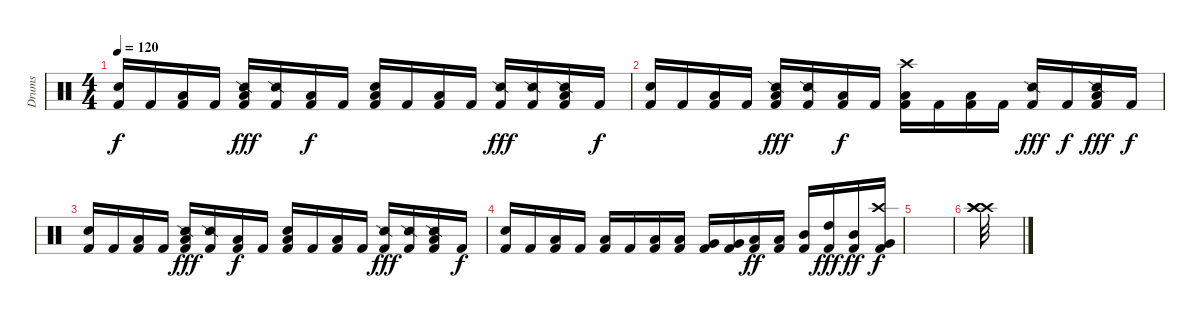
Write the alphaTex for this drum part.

\track ("Drums" "Drums") {instrument percussion}
\staff {score}
\articulation defaults
\ts (4 4)
\tempo 120
\clef neutral
\ks c
("Snare (hit) 2" "Kick (hit) 2").16{dy f} "Kick (hit) 2".16 ("Low Floor Tom (hit)" "Kick (hit) 2").16 "Kick (hit) 2".16 ("Snare (side stick) 2" "Low Floor Tom (hit)" "Kick (hit) 2").16{dy fff} ("Snare (side stick) 2" "Kick (hit) 2").16 ("Low Floor Tom (hit)" "Kick (hit) 2").16{dy f} "Kick (hit) 2".16 ("Snare (hit) 2" "Low Floor Tom (hit)" "Kick (hit) 2").16 "Kick (hit) 2".16 ("Low Floor Tom (hit)" "Kick (hit) 2").16 "Kick (hit) 2".16 ("Snare (side stick) 2" "Kick (hit) 2").16{dy fff} ("Snare (side stick) 2" "Kick (hit) 2").16 ("Snare (side stick) 2" "Low Floor Tom (hit)" "Kick (hit) 2").16 "Kick (hit) 2".16{dy f} |
("Snare (hit) 2" "Kick (hit) 2").16 "Kick (hit) 2".16 ("Low Floor Tom (hit)" "Kick (hit) 2").16 "Kick (hit) 2".16 ("Snare (side stick) 2" "Low Floor Tom (hit)" "Kick (hit) 2").16{dy fff} ("Snare (side stick) 2" "Kick (hit) 2").16 ("Low Floor Tom (hit)" "Kick (hit) 2").16{dy f} "Kick (hit) 2".16 ("Crash high (hit)" "Low Floor Tom (hit)" "Kick (hit) 2").16 "Kick (hit) 2".16 ("Low Floor Tom (hit)" "Kick (hit) 2").16 "Kick (hit) 2".16 ("Snare (side stick) 2" "Kick (hit) 2").16{dy fff} "Kick (hit) 2".16{dy f} ("Snare (side stick) 2" "Low Floor Tom (hit)" "Kick (hit) 2").16{dy fff} "Kick (hit) 2".16{dy f} |
("Snare (hit) 2" "Kick (hit) 2").16 "Kick (hit) 2".16 ("Low Floor Tom (hit)" "Kick (hit) 2").16 "Kick (hit) 2".16 ("Snare (side stick) 2" "Low Floor Tom (hit)" "Kick (hit) 2").16{dy fff} ("Snare (side stick) 2" "Kick (hit) 2").16 ("Low Floor Tom (hit)" "Kick (hit) 2").16{dy f} "Kick (hit) 2".16 ("Snare (hit) 2" "Low Floor Tom (hit)" "Kick (hit) 2").16 "Kick (hit) 2".16 ("Low Floor Tom (hit)" "Kick (hit) 2").16 "Kick (hit) 2".16 ("Snare (side stick) 2" "Kick (hit) 2").16{dy fff} ("Snare (side stick) 2" "Kick (hit) 2").16 ("Snare (side stick) 2" "Low Floor Tom (hit)" "Kick (hit) 2").16 "Kick (hit) 2".16{dy f} |
("Snare (hit) 2" "Kick (hit) 2").16 "Kick (hit) 2".16 ("Low Floor Tom (hit)" "Kick (hit) 2").16 "Kick (hit) 2".16 ("Low Floor Tom (hit)" "Kick (hit) 2").16 "Kick (hit) 2".16 ("Low Floor Tom (hit)" "Kick (hit) 2").16 ("Low Floor Tom (hit)" "Kick (hit) 2").16 ("Very Low Tom (hit)" "Kick (hit) 2").16 ("Very Low Tom (hit)" "Kick (hit) 2").16 ("Low Tom (hit)" "Kick (hit) 2").16{dy ff} ("Low Tom (hit)" "Kick (hit) 2").16 ("Mid Tom (hit)" "Kick (hit) 2").16 ("High Tom (hit)" "Kick (hit) 2").16{dy fff} ("Mid Tom (hit)" "Kick (hit) 2").16{dy ff} ("Crash high (hit)" "Very Low Tom (hit)" "Kick (hit) 2").16{dy f} |
|
("Crash high (hit)" "Crash high (hit)" "Crash high (hit)").32
